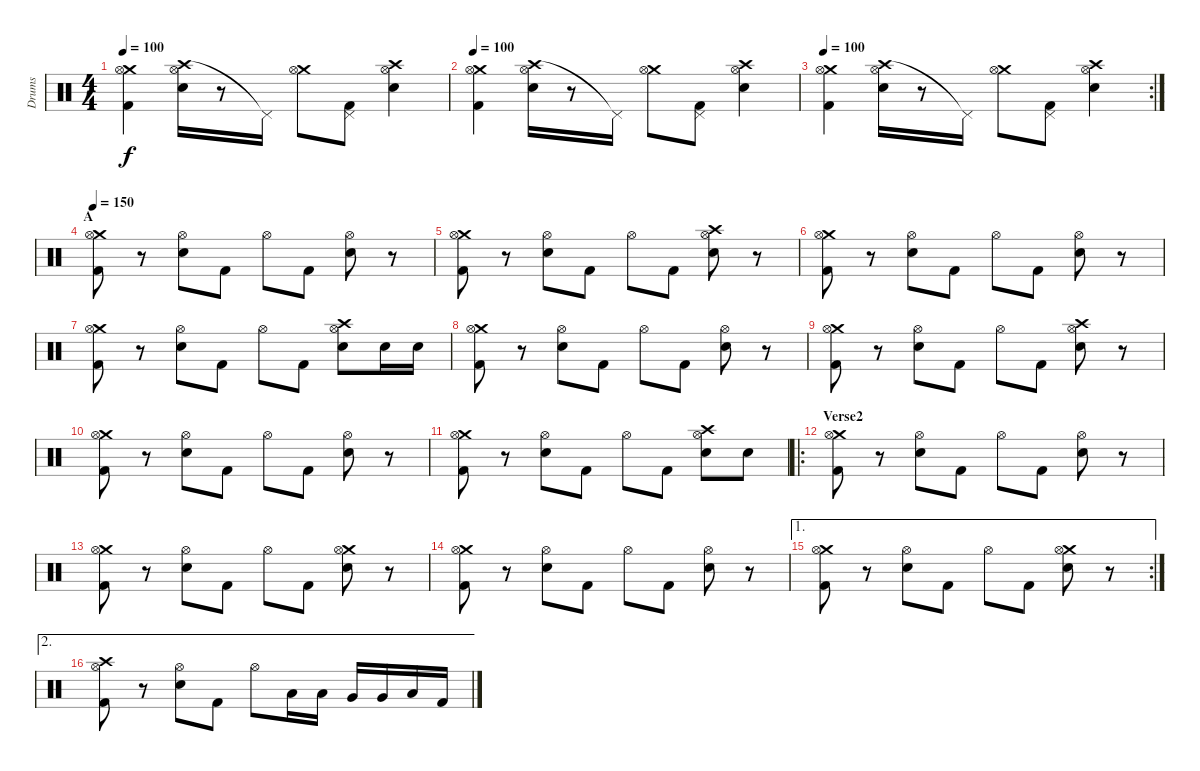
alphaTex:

\track ("Drums" "Drums") {instrument percussion}
\staff {score}
\articulation defaults
\ts (4 4)
\tempo 100
\clef neutral
\ks c
("Crash medium (hit)" "Hi-Hat (open)" "Kick (hit) 2").4{dy f} ("Crash high (hit)" "Hi-Hat (open)" "Electric Snare (hit)").16 r.8 "Pedal Hi-Hat (hit)"{t}.16 ("Crash medium (hit)" "Hi-Hat (open)").8 ("Pedal Hi-Hat (hit)" "Kick (hit) 2").8 ("Crash high (hit)" "Hi-Hat (open)" "Electric Snare (hit)").4 |
\tempo 100
("Crash medium (hit)" "Hi-Hat (open)" "Kick (hit) 2").4 ("Crash high (hit)" "Hi-Hat (open)" "Electric Snare (hit)").16 r.8 "Pedal Hi-Hat (hit)"{t}.16 ("Crash medium (hit)" "Hi-Hat (open)").8 ("Pedal Hi-Hat (hit)" "Kick (hit) 2").8 ("Crash high (hit)" "Hi-Hat (open)" "Electric Snare (hit)").4 |
\rc 2
\tempo 100
("Crash medium (hit)" "Hi-Hat (open)" "Kick (hit) 2").4 ("Crash high (hit)" "Hi-Hat (open)" "Electric Snare (hit)").16 r.8 "Pedal Hi-Hat (hit)"{t}.16 ("Crash medium (hit)" "Hi-Hat (open)").8 ("Pedal Hi-Hat (hit)" "Kick (hit) 2").8 ("Crash high (hit)" "Hi-Hat (open)" "Electric Snare (hit)").4 |
\section ("" "A")
\tempo 150
("Crash medium (hit)" "Hi-Hat (open)" "Kick (hit) 2").8 r.8 ("Hi-Hat (open)" "Snare (hit) 2").8 "Kick (hit) 2".8 "Hi-Hat (open)".8 "Kick (hit) 2".8 ("Hi-Hat (open)" "Snare (hit) 2").8 r.8 |
("Crash medium (hit)" "Hi-Hat (open)" "Kick (hit) 2").8 r.8 ("Hi-Hat (open)" "Snare (hit) 2").8 "Kick (hit) 2".8 "Hi-Hat (open)".8 "Kick (hit) 2".8 ("Crash high (hit)" "Hi-Hat (open)" "Snare (hit) 2").8 r.8 |
("Crash medium (hit)" "Hi-Hat (open)" "Kick (hit) 2").8 r.8 ("Hi-Hat (open)" "Snare (hit) 2").8 "Kick (hit) 2".8 "Hi-Hat (open)".8 "Kick (hit) 2".8 ("Hi-Hat (open)" "Snare (hit) 2").8 r.8 |
("Crash medium (hit)" "Hi-Hat (open)" "Kick (hit) 2").8 r.8 ("Hi-Hat (open)" "Snare (hit) 2").8 "Kick (hit) 2".8 "Hi-Hat (open)".8 "Kick (hit) 2".8 ("Crash high (hit)" "Hi-Hat (open)" "Snare (hit) 2").8 "Snare (hit) 2".16 "Snare (hit) 2".16 |
("Crash medium (hit)" "Hi-Hat (open)" "Kick (hit) 2").8 r.8 ("Hi-Hat (open)" "Snare (hit) 2").8 "Kick (hit) 2".8 "Hi-Hat (open)".8 "Kick (hit) 2".8 ("Hi-Hat (open)" "Snare (hit) 2").8 r.8 |
("Crash medium (hit)" "Hi-Hat (open)" "Kick (hit) 2").8 r.8 ("Hi-Hat (open)" "Snare (hit) 2").8 "Kick (hit) 2".8 "Hi-Hat (open)".8 "Kick (hit) 2".8 ("Crash high (hit)" "Hi-Hat (open)" "Snare (hit) 2").8 r.8 |
("Crash medium (hit)" "Hi-Hat (open)" "Kick (hit) 2").8 r.8 ("Hi-Hat (open)" "Snare (hit) 2").8 "Kick (hit) 2".8 "Hi-Hat (open)".8 "Kick (hit) 2".8 ("Hi-Hat (open)" "Snare (hit) 2").8 r.8 |
("Crash medium (hit)" "Hi-Hat (open)" "Kick (hit) 2").8 r.8 ("Hi-Hat (open)" "Snare (hit) 2").8 "Kick (hit) 2".8 "Hi-Hat (open)".8 "Kick (hit) 2".8 ("Crash high (hit)" "Hi-Hat (open)" "Snare (hit) 2").8 "Snare (hit) 2".8 |
\ro
\section ("" "Verse2")
("Crash medium (hit)" "Hi-Hat (open)" "Kick (hit) 2").8 r.8 ("Hi-Hat (open)" "Snare (hit) 2").8 "Kick (hit) 2".8 "Hi-Hat (open)".8 "Kick (hit) 2".8 ("Hi-Hat (open)" "Snare (hit) 2").8 r.8 |
("Crash medium (hit)" "Hi-Hat (open)" "Kick (hit) 2").8 r.8 ("Hi-Hat (open)" "Snare (hit) 2").8 "Kick (hit) 2".8 "Hi-Hat (open)".8 "Kick (hit) 2".8 ("Crash medium (hit)" "Hi-Hat (open)" "Snare (hit) 2").8 r.8 |
("Crash medium (hit)" "Hi-Hat (open)" "Kick (hit) 2").8 r.8 ("Hi-Hat (open)" "Snare (hit) 2").8 "Kick (hit) 2".8 "Hi-Hat (open)".8 "Kick (hit) 2".8 ("Hi-Hat (open)" "Snare (hit) 2").8 r.8 |
\ae 1
\rc 2
("Crash medium (hit)" "Hi-Hat (open)" "Kick (hit) 2").8 r.8 ("Hi-Hat (open)" "Snare (hit) 2").8 "Kick (hit) 2".8 "Hi-Hat (open)".8 "Kick (hit) 2".8 ("Crash medium (hit)" "Hi-Hat (open)" "Snare (hit) 2").8 r.8 |
\ae 2
("Crash high (hit)" "Hi-Hat (open)" "Kick (hit) 2").8 r.8 ("Hi-Hat (open)" "Snare (hit) 2").8 "Kick (hit) 2".8 "Hi-Hat (open)".8 "Low Tom (hit)".16 "Low Tom (hit)".16 "Very Low Tom (hit)".16 "Very Low Tom (hit)".16 "Low Floor Tom (hit)".16 "Kick (hit) 2".16
